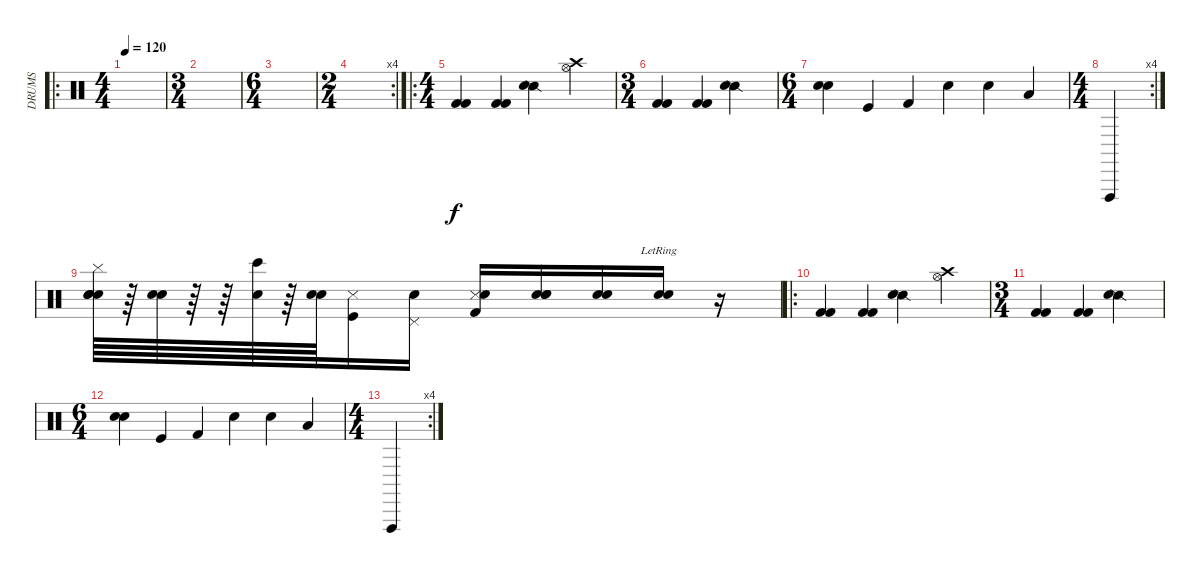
\track ("DRUMS" "DRUMS") {instrument percussion}
\staff {score}
\articulation defaults
\ro
\ts (4 4)
\tempo 120
\clef neutral
\ks c
|
\ts (3 4)
|
\ts (6 4)
|
\rc 4
\ts (2 4)
|
\ro
\ts (4 4)
("Kick (hit) 2" "Kick (hit) 2").4 ("Kick (hit) 2" "Kick (hit) 2").4 ("Snare (side stick) 2" "Snare (hit) 2").4 ("Crash high (hit)" "Hi-Hat (open)").4 |
\ts (3 4)
("Kick (hit) 2" "Kick (hit) 2").4 ("Kick (hit) 2" "Kick (hit) 2").4 ("Snare (side stick) 2" "Snare (hit) 2").4 |
\ts (6 4)
("Electric Snare (hit)" "Snare (hit) 2").4 "Kick (hit)".4 "Kick (hit) 2".4 "Electric Snare (hit)".4 "Electric Snare (hit)".4 "Low Floor Tom (hit)".4 |
\rc 4
\ts (4 4)
"Vibraslap (hit)".4 |
("Snare (hit) 2" "Cymbal (hit)" "Snare (hit)" "Snare (hit)").64 r.64 ("Snare (hit) 2" "Snare (hit)").64 r.64 r.64 ("Snare (hit) 2" "Bongo High (hit)").64 r.64 ("Electric Snare (hit)" "Snare (hit)").64 ("Kick (hit)" "Snare (side stick) 3").16 ("Snare (hit) 2" "Pedal Hi-Hat (hit)").16 ("Kick (hit) 2" "Snare (side stick) 3" "Snare (hit)").16 ("Snare (hit) 2" "Snare (hit) 2" "Snare (hit)").16 ("Snare (hit) 2" "Snare (hit) 2").16 ("Snare (hit) 2"{lr} "Snare (hit) 2"{lr}).16 r.16 |
\ro
("Kick (hit) 2" "Kick (hit) 2").4 ("Kick (hit) 2" "Kick (hit) 2").4 ("Snare (side stick) 2" "Snare (hit) 2").4 ("Crash high (hit)" "Hi-Hat (open)").4 |
\ts (3 4)
("Kick (hit) 2" "Kick (hit) 2").4 ("Kick (hit) 2" "Kick (hit) 2").4 ("Snare (side stick) 2" "Snare (hit) 2").4 |
\ts (6 4)
("Electric Snare (hit)" "Snare (hit) 2").4 "Kick (hit)".4 "Kick (hit) 2".4 "Electric Snare (hit)".4 "Electric Snare (hit)".4 "Low Floor Tom (hit)".4 |
\rc 4
\ts (4 4)
"Vibraslap (hit)".4
